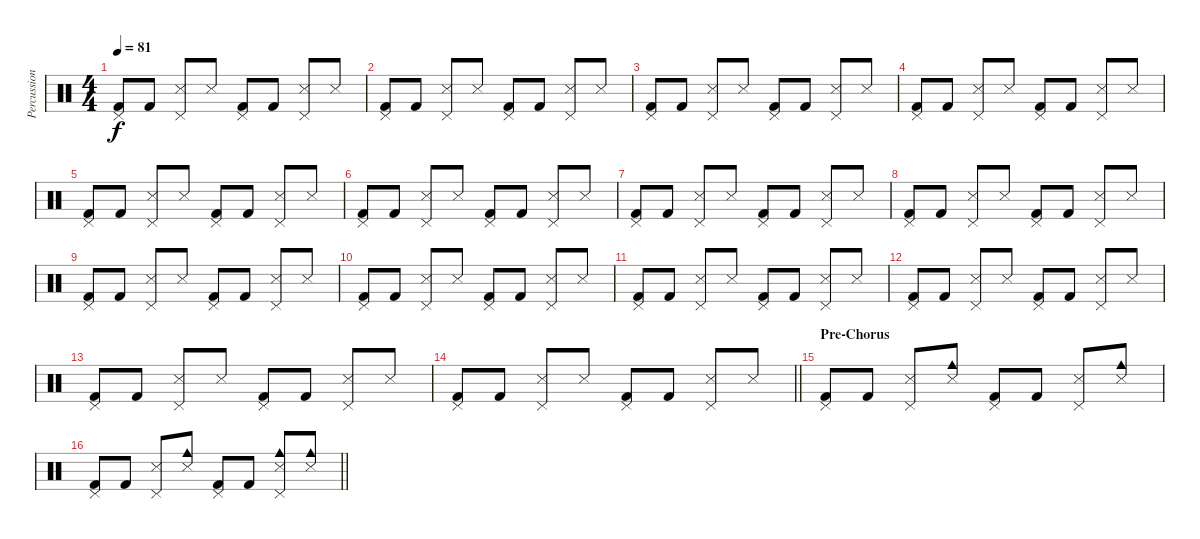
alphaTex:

\track ("Percussion" "Percussion") {instrument percussion}
\staff {score}
\articulation defaults
\ts (4 4)
\tempo 81
\clef neutral
\ks c
("Pedal Hi-Hat (hit)" "Kick (hit) 2").8{dy f} "Kick (hit) 2".8 ("Pedal Hi-Hat (hit)" "Snare (side stick) 3").8 "Snare (side stick) 3".8 ("Pedal Hi-Hat (hit)" "Kick (hit) 2").8 "Kick (hit) 2".8 ("Pedal Hi-Hat (hit)" "Snare (side stick) 3").8 "Snare (side stick) 3".8 |
("Pedal Hi-Hat (hit)" "Kick (hit) 2").8 "Kick (hit) 2".8 ("Pedal Hi-Hat (hit)" "Snare (side stick) 3").8 "Snare (side stick) 3".8 ("Pedal Hi-Hat (hit)" "Kick (hit) 2").8 "Kick (hit) 2".8 ("Pedal Hi-Hat (hit)" "Snare (side stick) 3").8 "Snare (side stick) 3".8 |
("Pedal Hi-Hat (hit)" "Kick (hit) 2").8 "Kick (hit) 2".8 ("Pedal Hi-Hat (hit)" "Snare (side stick) 3").8 "Snare (side stick) 3".8 ("Pedal Hi-Hat (hit)" "Kick (hit) 2").8 "Kick (hit) 2".8 ("Pedal Hi-Hat (hit)" "Snare (side stick) 3").8 "Snare (side stick) 3".8 |
("Pedal Hi-Hat (hit)" "Kick (hit) 2").8 "Kick (hit) 2".8 ("Pedal Hi-Hat (hit)" "Snare (side stick) 3").8 "Snare (side stick) 3".8 ("Pedal Hi-Hat (hit)" "Kick (hit) 2").8 "Kick (hit) 2".8 ("Pedal Hi-Hat (hit)" "Snare (side stick) 3").8 "Snare (side stick) 3".8 |
("Pedal Hi-Hat (hit)" "Kick (hit) 2").8 "Kick (hit) 2".8 ("Pedal Hi-Hat (hit)" "Snare (side stick) 3").8 "Snare (side stick) 3".8 ("Pedal Hi-Hat (hit)" "Kick (hit) 2").8 "Kick (hit) 2".8 ("Pedal Hi-Hat (hit)" "Snare (side stick) 3").8 "Snare (side stick) 3".8 |
("Pedal Hi-Hat (hit)" "Kick (hit) 2").8 "Kick (hit) 2".8 ("Pedal Hi-Hat (hit)" "Snare (side stick) 3").8 "Snare (side stick) 3".8 ("Pedal Hi-Hat (hit)" "Kick (hit) 2").8 "Kick (hit) 2".8 ("Pedal Hi-Hat (hit)" "Snare (side stick) 3").8 "Snare (side stick) 3".8 |
("Pedal Hi-Hat (hit)" "Kick (hit) 2").8 "Kick (hit) 2".8 ("Pedal Hi-Hat (hit)" "Snare (side stick) 3").8 "Snare (side stick) 3".8 ("Pedal Hi-Hat (hit)" "Kick (hit) 2").8 "Kick (hit) 2".8 ("Pedal Hi-Hat (hit)" "Snare (side stick) 3").8 "Snare (side stick) 3".8 |
("Pedal Hi-Hat (hit)" "Kick (hit) 2").8 "Kick (hit) 2".8 ("Pedal Hi-Hat (hit)" "Snare (side stick) 3").8 "Snare (side stick) 3".8 ("Pedal Hi-Hat (hit)" "Kick (hit) 2").8 "Kick (hit) 2".8 ("Pedal Hi-Hat (hit)" "Snare (side stick) 3").8 "Snare (side stick) 3".8 |
("Pedal Hi-Hat (hit)" "Kick (hit) 2").8 "Kick (hit) 2".8 ("Pedal Hi-Hat (hit)" "Snare (side stick) 3").8 "Snare (side stick) 3".8 ("Pedal Hi-Hat (hit)" "Kick (hit) 2").8 "Kick (hit) 2".8 ("Pedal Hi-Hat (hit)" "Snare (side stick) 3").8 "Snare (side stick) 3".8 |
("Pedal Hi-Hat (hit)" "Kick (hit) 2").8 "Kick (hit) 2".8 ("Pedal Hi-Hat (hit)" "Snare (side stick) 3").8 "Snare (side stick) 3".8 ("Pedal Hi-Hat (hit)" "Kick (hit) 2").8 "Kick (hit) 2".8 ("Pedal Hi-Hat (hit)" "Snare (side stick) 3").8 "Snare (side stick) 3".8 |
("Pedal Hi-Hat (hit)" "Kick (hit) 2").8 "Kick (hit) 2".8 ("Pedal Hi-Hat (hit)" "Snare (side stick) 3").8 "Snare (side stick) 3".8 ("Pedal Hi-Hat (hit)" "Kick (hit) 2").8 "Kick (hit) 2".8 ("Pedal Hi-Hat (hit)" "Snare (side stick) 3").8 "Snare (side stick) 3".8 |
("Pedal Hi-Hat (hit)" "Kick (hit) 2").8 "Kick (hit) 2".8 ("Pedal Hi-Hat (hit)" "Snare (side stick) 3").8 "Snare (side stick) 3".8 ("Pedal Hi-Hat (hit)" "Kick (hit) 2").8 "Kick (hit) 2".8 ("Pedal Hi-Hat (hit)" "Snare (side stick) 3").8 "Snare (side stick) 3".8 |
("Pedal Hi-Hat (hit)" "Kick (hit) 2").8 "Kick (hit) 2".8 ("Pedal Hi-Hat (hit)" "Snare (side stick) 3").8 "Snare (side stick) 3".8 ("Pedal Hi-Hat (hit)" "Kick (hit) 2").8 "Kick (hit) 2".8 ("Pedal Hi-Hat (hit)" "Snare (side stick) 3").8 "Snare (side stick) 3".8 |
\barLineRight lightlight
("Pedal Hi-Hat (hit)" "Kick (hit) 2").8 "Kick (hit) 2".8 ("Pedal Hi-Hat (hit)" "Snare (side stick) 3").8 "Snare (side stick) 3".8 ("Pedal Hi-Hat (hit)" "Kick (hit) 2").8 "Kick (hit) 2".8 ("Pedal Hi-Hat (hit)" "Snare (side stick) 3").8 "Snare (side stick) 3".8 |
\section ("" "Pre-Chorus")
("Pedal Hi-Hat (hit)" "Kick (hit) 2").8 "Kick (hit) 2".8 ("Pedal Hi-Hat (hit)" "Snare (side stick) 3").8 ("Cowbell medium (hit)" "Snare (side stick) 3").8 ("Pedal Hi-Hat (hit)" "Kick (hit) 2").8 "Kick (hit) 2".8 ("Pedal Hi-Hat (hit)" "Snare (side stick) 3").8 ("Cowbell medium (hit)" "Snare (side stick) 3").8 |
\barLineRight lightlight
("Pedal Hi-Hat (hit)" "Kick (hit) 2").8 "Kick (hit) 2".8 ("Pedal Hi-Hat (hit)" "Snare (side stick) 3").8 ("Cowbell medium (hit)" "Snare (side stick) 3").8 ("Pedal Hi-Hat (hit)" "Kick (hit) 2").8 "Kick (hit) 2".8 ("Pedal Hi-Hat (hit)" "Cowbell medium (hit)" "Snare (side stick) 3").8 ("Cowbell medium (hit)" "Snare (side stick) 3").8
